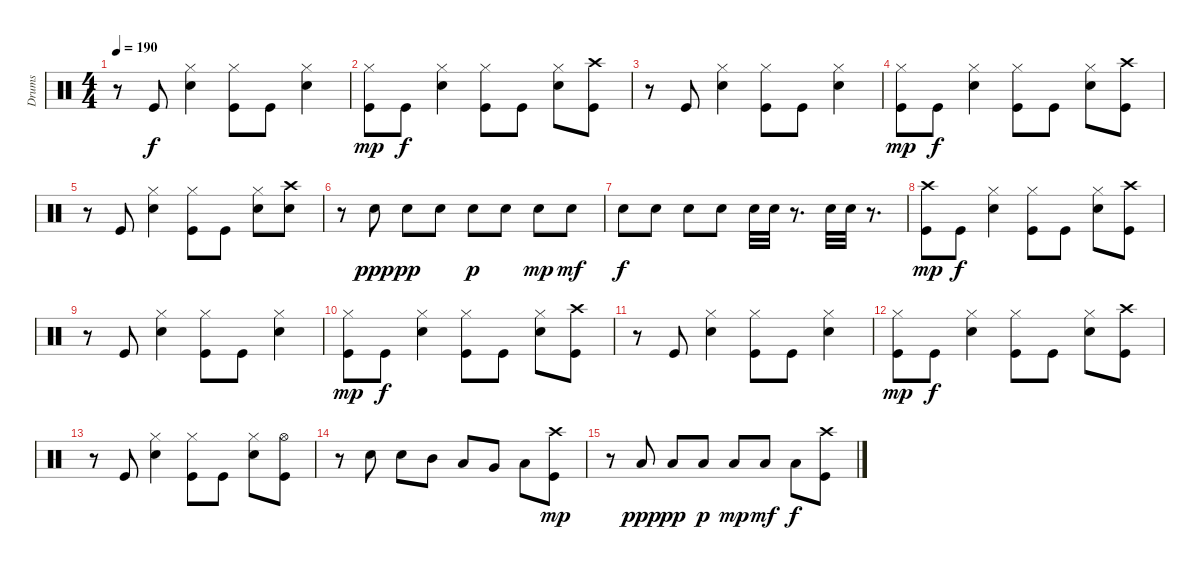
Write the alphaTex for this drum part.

\track ("Drums" "Drums") {instrument percussion}
\staff {score}
\articulation defaults
\ts (4 4)
\tempo 190
\clef neutral
\ks c
r.8{dy f} "Kick (hit)".8 ("Hi-Hat (closed)" "Snare (hit) 2").4 ("Hi-Hat (closed)" "Kick (hit)").8 "Kick (hit)".8 ("Hi-Hat (closed)" "Snare (hit) 2").4 |
("Hi-Hat (closed)" "Kick (hit)").8{dy mp} "Kick (hit)".8{dy f} ("Hi-Hat (closed)" "Snare (hit) 2").4 ("Hi-Hat (closed)" "Kick (hit)").8 "Kick (hit)".8 ("Hi-Hat (closed)" "Snare (hit) 2").8 ("Crash high (hit)" "Kick (hit)").8 |
r.8 "Kick (hit)".8 ("Hi-Hat (closed)" "Snare (hit) 2").4 ("Hi-Hat (closed)" "Kick (hit)").8 "Kick (hit)".8 ("Hi-Hat (closed)" "Snare (hit) 2").4 |
("Hi-Hat (closed)" "Kick (hit)").8{dy mp} "Kick (hit)".8{dy f} ("Hi-Hat (closed)" "Snare (hit) 2").4 ("Hi-Hat (closed)" "Kick (hit)").8 "Kick (hit)".8 ("Hi-Hat (closed)" "Snare (hit) 2").8 ("Crash high (hit)" "Kick (hit)").8 |
r.8 "Kick (hit)".8 ("Hi-Hat (closed)" "Snare (hit) 2").4 ("Hi-Hat (closed)" "Kick (hit)").8 "Kick (hit)".8 ("Hi-Hat (closed)" "Snare (hit) 2").8 ("Crash high (hit)" "Snare (hit) 2").8 |
r.8 "Snare (hit) 2".8{dy ppp} "Snare (hit) 2".8{dy pp} "Snare (hit) 2".8 "Snare (hit) 2".8{dy p} "Snare (hit) 2".8 "Snare (hit) 2".8{dy mp} "Snare (hit) 2".8{dy mf} |
"Snare (hit) 2".8{dy f} "Snare (hit) 2".8 "Snare (hit) 2".8 "Snare (hit) 2".8 "Snare (hit) 2".32 "Snare (hit) 2".32 r.8{d} "Snare (hit) 2".32 "Snare (hit) 2".32 r.8{d} |
("Crash high (hit)" "Kick (hit)").8{dy mp} "Kick (hit)".8{dy f} ("Hi-Hat (closed)" "Snare (hit) 2").4 ("Hi-Hat (closed)" "Kick (hit)").8 "Kick (hit)".8 ("Hi-Hat (closed)" "Snare (hit) 2").8 ("Crash high (hit)" "Kick (hit)").8 |
r.8 "Kick (hit)".8 ("Hi-Hat (closed)" "Snare (hit) 2").4 ("Hi-Hat (closed)" "Kick (hit)").8 "Kick (hit)".8 ("Hi-Hat (closed)" "Snare (hit) 2").4 |
("Hi-Hat (closed)" "Kick (hit)").8{dy mp} "Kick (hit)".8{dy f} ("Hi-Hat (closed)" "Snare (hit) 2").4 ("Hi-Hat (closed)" "Kick (hit)").8 "Kick (hit)".8 ("Hi-Hat (closed)" "Snare (hit) 2").8 ("Crash high (hit)" "Kick (hit)").8 |
r.8 "Kick (hit)".8 ("Hi-Hat (closed)" "Snare (hit) 2").4 ("Hi-Hat (closed)" "Kick (hit)").8 "Kick (hit)".8 ("Hi-Hat (closed)" "Snare (hit) 2").4 |
("Hi-Hat (closed)" "Kick (hit)").8{dy mp} "Kick (hit)".8{dy f} ("Hi-Hat (closed)" "Snare (hit) 2").4 ("Hi-Hat (closed)" "Kick (hit)").8 "Kick (hit)".8 ("Hi-Hat (closed)" "Snare (hit) 2").8 ("Crash high (hit)" "Kick (hit)").8 |
r.8 "Kick (hit)".8 ("Hi-Hat (closed)" "Snare (hit) 2").4 ("Hi-Hat (closed)" "Kick (hit)").8 "Kick (hit)".8 ("Hi-Hat (closed)" "Snare (hit) 2").8 ("Hi-Hat (open)" "Kick (hit)").8 |
r.8 "Snare (hit) 2".8 "Snare (hit) 2".8 "Mid Tom (hit)".8 "Low Tom (hit)".8 "Very Low Tom (hit)".8 "Low Floor Tom (hit)".8 ("Crash high (hit)" "Kick (hit)").8{dy mp} |
r.8 "Low Floor Tom (hit)".8{dy ppp} "Low Floor Tom (hit)".8{dy pp} "Low Floor Tom (hit)".8{dy p} "Low Floor Tom (hit)".8{dy mp} "Low Floor Tom (hit)".8{dy mf} "Low Floor Tom (hit)".8{dy f} ("Crash high (hit)" "Kick (hit)").8
